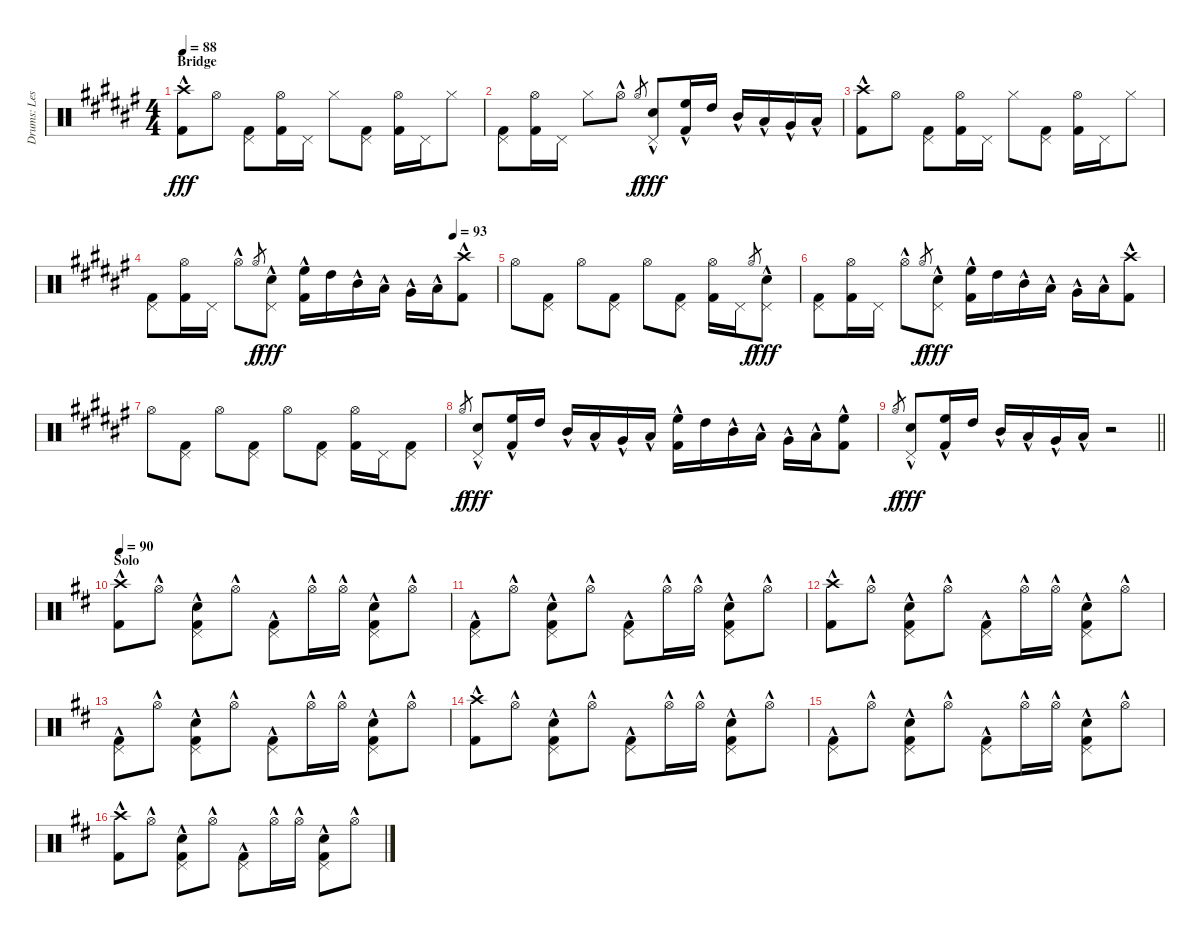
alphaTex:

\track ("Drums: Les" "Drums: Les") {instrument percussion}
\staff {score}
\articulation defaults
\ts (4 4)
\section ("" "Bridge")
\tempo 88
\clef neutral
\ks f#
("Crash high (hit)"{hac} "Kick (hit) 2"{hac}).8{dy fff} "Hi-Hat (open)".8 ("Pedal Hi-Hat (hit)" "Kick (hit) 2").8 ("Hi-Hat (open)" "Kick (hit) 2").16 "Pedal Hi-Hat (hit)".16 "Hi-Hat (closed)".8 ("Pedal Hi-Hat (hit)" "Kick (hit) 2").8 ("Hi-Hat (open)" "Kick (hit) 2").16 "Pedal Hi-Hat (hit)".16 "Hi-Hat (closed)".8 |
("Pedal Hi-Hat (hit)" "Kick (hit) 2").8 ("Hi-Hat (open)" "Kick (hit) 2").16 "Pedal Hi-Hat (hit)".16 "Hi-Hat (closed)".8 "Hi-Hat (open)"{hac}.8 "Hi-Hat (open)".8{gr dy f} ("Pedal Hi-Hat (hit)"{hac} "Snare (hit) 2"{hac}).8{dy fff} ("High Floor Tom (hit)" "Kick (hit) 2"{hac}).16 "High Tom (hit)".16 "Mid Tom (hit)"{hac}.16 "Low Tom (hit)"{hac}.16 "Very Low Tom (hit)"{hac}.16 "Low Floor Tom (hit)"{hac}.16 |
("Crash high (hit)"{hac} "Kick (hit) 2"{hac}).8 "Hi-Hat (open)".8 ("Pedal Hi-Hat (hit)" "Kick (hit) 2").8 ("Hi-Hat (open)" "Kick (hit) 2").16 "Pedal Hi-Hat (hit)".16 "Hi-Hat (closed)".8 ("Pedal Hi-Hat (hit)" "Kick (hit) 2").8 ("Hi-Hat (open)" "Kick (hit) 2").16 "Pedal Hi-Hat (hit)".16 "Hi-Hat (closed)".8 |
\tempo (93 0.875)
("Pedal Hi-Hat (hit)" "Kick (hit) 2").8 ("Hi-Hat (open)" "Kick (hit) 2").16 "Pedal Hi-Hat (hit)".16 "Hi-Hat (open)"{hac}.8 "Hi-Hat (open)".8{gr dy f} ("Pedal Hi-Hat (hit)"{hac} "Snare (hit) 2"{hac}).8{dy fff} ("High Floor Tom (hit)" "Kick (hit) 2"{hac}).16 "High Tom (hit)".16 "Mid Tom (hit)"{hac}.16 "Low Tom (hit)"{hac}.16 "Very Low Tom (hit)"{hac}.16 "Low Floor Tom (hit)"{hac}.16 ("Crash high (hit)"{hac} "Kick (hit) 2"{hac}).8 |
"Hi-Hat (open)".8 ("Pedal Hi-Hat (hit)" "Kick (hit) 2").8 "Hi-Hat (open)".8 ("Pedal Hi-Hat (hit)" "Kick (hit) 2").8 "Hi-Hat (open)".8 ("Pedal Hi-Hat (hit)" "Kick (hit) 2").8 ("Hi-Hat (open)" "Kick (hit) 2").16 "Pedal Hi-Hat (hit)".16 "Hi-Hat (open)".8{gr dy f} ("Pedal Hi-Hat (hit)"{hac} "Snare (hit) 2"{hac}).8{dy fff} |
("Pedal Hi-Hat (hit)" "Kick (hit) 2").8 ("Hi-Hat (open)" "Kick (hit) 2").16 "Pedal Hi-Hat (hit)".16 "Hi-Hat (open)"{hac}.8 "Hi-Hat (open)".8{gr dy f} ("Pedal Hi-Hat (hit)"{hac} "Snare (hit) 2"{hac}).8{dy fff} ("High Floor Tom (hit)" "Kick (hit) 2"{hac}).16 "High Tom (hit)".16 "Mid Tom (hit)"{hac}.16 "Low Tom (hit)"{hac}.16 "Very Low Tom (hit)"{hac}.16 "Low Floor Tom (hit)"{hac}.16 ("Crash high (hit)"{hac} "Kick (hit) 2"{hac}).8 |
"Hi-Hat (open)".8 ("Pedal Hi-Hat (hit)" "Kick (hit) 2").8 "Hi-Hat (open)".8 ("Pedal Hi-Hat (hit)" "Kick (hit) 2").8 "Hi-Hat (open)".8 ("Pedal Hi-Hat (hit)" "Kick (hit) 2").8 ("Hi-Hat (open)" "Kick (hit) 2").16 "Pedal Hi-Hat (hit)".16 ("Pedal Hi-Hat (hit)" "Kick (hit) 2").8 |
"Hi-Hat (open)".8{gr dy f} ("Pedal Hi-Hat (hit)"{hac} "Snare (hit) 2"{hac}).8{dy fff} ("High Floor Tom (hit)" "Kick (hit) 2"{hac}).16 "High Tom (hit)".16 "Mid Tom (hit)"{hac}.16 "Low Tom (hit)"{hac}.16 "Very Low Tom (hit)"{hac}.16 "Low Floor Tom (hit)"{hac}.16 ("High Floor Tom (hit)" "Kick (hit) 2"{hac}).16 "High Tom (hit)".16 "Mid Tom (hit)"{hac}.16 "Low Tom (hit)"{hac}.16 "Very Low Tom (hit)"{hac}.16 "Low Floor Tom (hit)"{hac}.16 ("High Floor Tom (hit)" "Kick (hit) 2"{hac}).8 |
\barLineRight lightlight "Hi-Hat (open)".8{gr dy f}
("Pedal Hi-Hat (hit)"{hac} "Snare (hit) 2"{hac}).8{dy fff} ("High Floor Tom (hit)" "Kick (hit) 2"{hac}).16 "High Tom (hit)".16 "Mid Tom (hit)"{hac}.16 "Low Tom (hit)"{hac}.16 "Very Low Tom (hit)"{hac}.16 "Low Floor Tom (hit)"{hac}.16 r.2 |
\section ("" "Solo")
\tempo 90
\ks d
("Crash high (hit)"{hac} "Kick (hit) 2"{hac}).8 "Hi-Hat (open)"{hac}.8 ("Pedal Hi-Hat (hit)"{hac} "Electric Snare (hit)"{hac} "Kick (hit) 2"{hac}).8 "Hi-Hat (open)"{hac}.8 ("Pedal Hi-Hat (hit)"{hac} "Kick (hit) 2"{hac}).8 "Hi-Hat (open)"{hac}.16 "Hi-Hat (open)"{hac}.16 ("Pedal Hi-Hat (hit)"{hac} "Electric Snare (hit)"{hac} "Kick (hit) 2"{hac}).8 "Hi-Hat (open)"{hac}.8 |
("Pedal Hi-Hat (hit)"{hac} "Kick (hit) 2"{hac}).8 "Hi-Hat (open)"{hac}.8 ("Pedal Hi-Hat (hit)"{hac} "Electric Snare (hit)"{hac} "Kick (hit) 2"{hac}).8 "Hi-Hat (open)"{hac}.8 ("Pedal Hi-Hat (hit)"{hac} "Kick (hit) 2"{hac}).8 "Hi-Hat (open)"{hac}.16 "Hi-Hat (open)"{hac}.16 ("Pedal Hi-Hat (hit)"{hac} "Electric Snare (hit)"{hac} "Kick (hit) 2"{hac}).8 "Hi-Hat (open)"{hac}.8 |
("Crash high (hit)"{hac} "Kick (hit) 2"{hac}).8 "Hi-Hat (open)"{hac}.8 ("Pedal Hi-Hat (hit)"{hac} "Electric Snare (hit)"{hac} "Kick (hit) 2"{hac}).8 "Hi-Hat (open)"{hac}.8 ("Pedal Hi-Hat (hit)"{hac} "Kick (hit) 2"{hac}).8 "Hi-Hat (open)"{hac}.16 "Hi-Hat (open)"{hac}.16 ("Pedal Hi-Hat (hit)"{hac} "Electric Snare (hit)"{hac} "Kick (hit) 2"{hac}).8 "Hi-Hat (open)"{hac}.8 |
("Pedal Hi-Hat (hit)"{hac} "Kick (hit) 2"{hac}).8 "Hi-Hat (open)"{hac}.8 ("Pedal Hi-Hat (hit)"{hac} "Electric Snare (hit)"{hac} "Kick (hit) 2"{hac}).8 "Hi-Hat (open)"{hac}.8 ("Pedal Hi-Hat (hit)"{hac} "Kick (hit) 2"{hac}).8 "Hi-Hat (open)"{hac}.16 "Hi-Hat (open)"{hac}.16 ("Pedal Hi-Hat (hit)"{hac} "Electric Snare (hit)"{hac} "Kick (hit) 2"{hac}).8 "Hi-Hat (open)"{hac}.8 |
("Crash high (hit)"{hac} "Kick (hit) 2"{hac}).8 "Hi-Hat (open)"{hac}.8 ("Pedal Hi-Hat (hit)"{hac} "Electric Snare (hit)"{hac} "Kick (hit) 2"{hac}).8 "Hi-Hat (open)"{hac}.8 ("Pedal Hi-Hat (hit)"{hac} "Kick (hit) 2"{hac}).8 "Hi-Hat (open)"{hac}.16 "Hi-Hat (open)"{hac}.16 ("Pedal Hi-Hat (hit)"{hac} "Electric Snare (hit)"{hac} "Kick (hit) 2"{hac}).8 "Hi-Hat (open)"{hac}.8 |
("Pedal Hi-Hat (hit)"{hac} "Kick (hit) 2"{hac}).8 "Hi-Hat (open)"{hac}.8 ("Pedal Hi-Hat (hit)"{hac} "Electric Snare (hit)"{hac} "Kick (hit) 2"{hac}).8 "Hi-Hat (open)"{hac}.8 ("Pedal Hi-Hat (hit)"{hac} "Kick (hit) 2"{hac}).8 "Hi-Hat (open)"{hac}.16 "Hi-Hat (open)"{hac}.16 ("Pedal Hi-Hat (hit)"{hac} "Electric Snare (hit)"{hac} "Kick (hit) 2"{hac}).8 "Hi-Hat (open)"{hac}.8 |
("Crash high (hit)"{hac} "Kick (hit) 2"{hac}).8 "Hi-Hat (open)"{hac}.8 ("Pedal Hi-Hat (hit)"{hac} "Electric Snare (hit)"{hac} "Kick (hit) 2"{hac}).8 "Hi-Hat (open)"{hac}.8 ("Pedal Hi-Hat (hit)"{hac} "Kick (hit) 2"{hac}).8 "Hi-Hat (open)"{hac}.16 "Hi-Hat (open)"{hac}.16 ("Pedal Hi-Hat (hit)"{hac} "Electric Snare (hit)"{hac} "Kick (hit) 2"{hac}).8 "Hi-Hat (open)"{hac}.8
